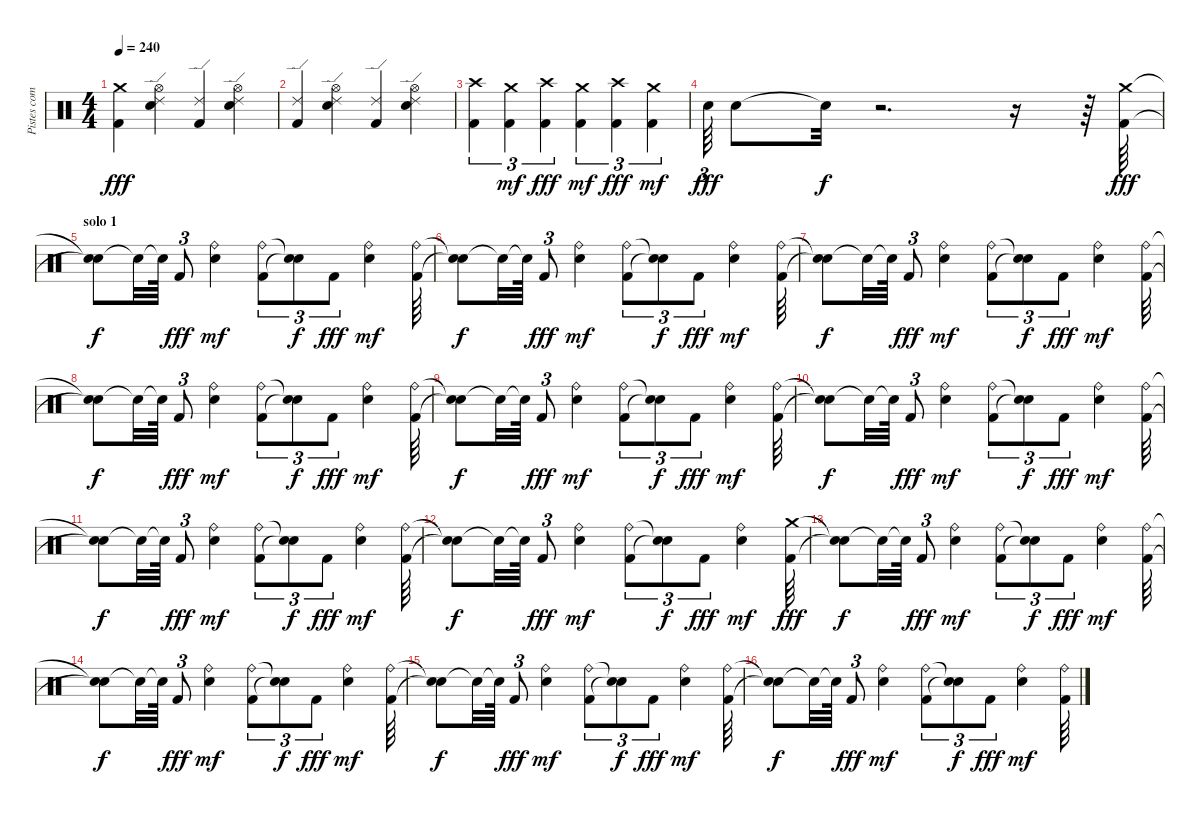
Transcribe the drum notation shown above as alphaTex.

\track ("Pistes combinées" "Pistes com") {instrument percussion}
\staff {score}
\articulation defaults
\ts (4 4)
\tempo 240
\clef neutral
\ks c
("Kick (hit) 2" "Crash medium (hit)").4{dy fff} ("Electric Snare (hit)" "Ride (edge) 2" "Hi-Hat (open)").4 ("Kick (hit) 2" "Ride (edge) 2").4 ("Electric Snare (hit)" "Ride (edge) 2" "Hi-Hat (open)").4 |
("Kick (hit) 2" "Ride (edge) 2").4 ("Electric Snare (hit)" "Ride (edge) 2" "Hi-Hat (open)").4 ("Kick (hit) 2" "Ride (edge) 2").4 ("Electric Snare (hit)" "Ride (edge) 2" "Hi-Hat (open)").4 |
("Kick (hit) 2" "Crash high (hit)").4{tu (3 2)} ("Kick (hit) 2" "Crash medium (hit)").4{tu (3 2) dy mf} ("Kick (hit) 2" "Crash high (hit)").4{tu (3 2) dy fff} ("Kick (hit) 2" "Crash medium (hit)").4{tu (3 2) dy mf} ("Kick (hit) 2" "Crash high (hit)").4{tu (3 2) dy fff} ("Kick (hit) 2" "Crash medium (hit)").4{tu (3 2) dy mf} |
"Electric Snare (hit)".64{tu (3 2) dy fff} "Electric Snare (hit)".8 "Snare (hit)"{t}.32{dy f} r.2{d} r.16 r.64 ("Kick (hit) 2" "Crash medium (hit)").64{dy fff} |
\section ("" "solo 1")
("Snare (hit)"{t} "Snare (hit)"{t}).8{dy f} "Snare (hit)"{t}.32 "Snare (hit)"{t}.64 "Kick (hit) 2".8{tu (3 2) dy fff} ("Electric Snare (hit)" "Ride (bell)").4{dy mf} ("Kick (hit) 2" "Ride (bell)").8{tu (3 2)} ("Snare (hit)"{t} "Snare (hit)"{t}).8{tu (3 2) dy f} "Kick (hit) 2".8{tu (3 2) dy fff} ("Electric Snare (hit)" "Ride (bell)").4{dy mf} ("Kick (hit) 2" "Ride (bell)").64 |
("Snare (hit)"{t} "Snare (hit)"{t}).8{dy f} "Snare (hit)"{t}.32 "Snare (hit)"{t}.64 "Kick (hit) 2".8{tu (3 2) dy fff} ("Electric Snare (hit)" "Ride (bell)").4{dy mf} ("Kick (hit) 2" "Ride (bell)").8{tu (3 2)} ("Snare (hit)"{t} "Snare (hit)"{t}).8{tu (3 2) dy f} "Kick (hit) 2".8{tu (3 2) dy fff} ("Electric Snare (hit)" "Ride (bell)").4{dy mf} ("Kick (hit) 2" "Ride (bell)").64 |
("Snare (hit)"{t} "Snare (hit)"{t}).8{dy f} "Snare (hit)"{t}.32 "Snare (hit)"{t}.64 "Kick (hit) 2".8{tu (3 2) dy fff} ("Electric Snare (hit)" "Ride (bell)").4{dy mf} ("Kick (hit) 2" "Ride (bell)").8{tu (3 2)} ("Snare (hit)"{t} "Snare (hit)"{t}).8{tu (3 2) dy f} "Kick (hit) 2".8{tu (3 2) dy fff} ("Electric Snare (hit)" "Ride (bell)").4{dy mf} ("Kick (hit) 2" "Ride (bell)").64 |
("Snare (hit)"{t} "Snare (hit)"{t}).8{dy f} "Snare (hit)"{t}.32 "Snare (hit)"{t}.64 "Kick (hit) 2".8{tu (3 2) dy fff} ("Electric Snare (hit)" "Ride (bell)").4{dy mf} ("Kick (hit) 2" "Ride (bell)").8{tu (3 2)} ("Snare (hit)"{t} "Snare (hit)"{t}).8{tu (3 2) dy f} "Kick (hit) 2".8{tu (3 2) dy fff} ("Electric Snare (hit)" "Ride (bell)").4{dy mf} ("Kick (hit) 2" "Ride (bell)").64 |
("Snare (hit)"{t} "Snare (hit)"{t}).8{dy f} "Snare (hit)"{t}.32 "Snare (hit)"{t}.64 "Kick (hit) 2".8{tu (3 2) dy fff} ("Electric Snare (hit)" "Ride (bell)").4{dy mf} ("Kick (hit) 2" "Ride (bell)").8{tu (3 2)} ("Snare (hit)"{t} "Snare (hit)"{t}).8{tu (3 2) dy f} "Kick (hit) 2".8{tu (3 2) dy fff} ("Electric Snare (hit)" "Ride (bell)").4{dy mf} ("Kick (hit) 2" "Ride (bell)").64 |
("Snare (hit)"{t} "Snare (hit)"{t}).8{dy f} "Snare (hit)"{t}.32 "Snare (hit)"{t}.64 "Kick (hit) 2".8{tu (3 2) dy fff} ("Electric Snare (hit)" "Ride (bell)").4{dy mf} ("Kick (hit) 2" "Ride (bell)").8{tu (3 2)} ("Snare (hit)"{t} "Snare (hit)"{t}).8{tu (3 2) dy f} "Kick (hit) 2".8{tu (3 2) dy fff} ("Electric Snare (hit)" "Ride (bell)").4{dy mf} ("Kick (hit) 2" "Ride (bell)").64 |
("Snare (hit)"{t} "Snare (hit)"{t}).8{dy f} "Snare (hit)"{t}.32 "Snare (hit)"{t}.64 "Kick (hit) 2".8{tu (3 2) dy fff} ("Electric Snare (hit)" "Ride (bell)").4{dy mf} ("Kick (hit) 2" "Ride (bell)").8{tu (3 2)} ("Snare (hit)"{t} "Snare (hit)"{t}).8{tu (3 2) dy f} "Kick (hit) 2".8{tu (3 2) dy fff} ("Electric Snare (hit)" "Ride (bell)").4{dy mf} ("Kick (hit) 2" "Ride (bell)").64 |
("Snare (hit)"{t} "Snare (hit)"{t}).8{dy f} "Snare (hit)"{t}.32 "Snare (hit)"{t}.64 "Kick (hit) 2".8{tu (3 2) dy fff} ("Electric Snare (hit)" "Ride (bell)").4{dy mf} ("Kick (hit) 2" "Ride (bell)").8{tu (3 2)} ("Snare (hit)"{t} "Snare (hit)"{t}).8{tu (3 2) dy f} "Kick (hit) 2".8{tu (3 2) dy fff} ("Electric Snare (hit)" "Ride (bell)").4{dy mf} ("Kick (hit) 2" "Crash medium (hit)").64{dy fff} |
("Snare (hit)"{t} "Snare (hit)"{t}).8{dy f} "Snare (hit)"{t}.32 "Snare (hit)"{t}.64 "Kick (hit) 2".8{tu (3 2) dy fff} ("Electric Snare (hit)" "Ride (bell)").4{dy mf} ("Kick (hit) 2" "Ride (bell)").8{tu (3 2)} ("Snare (hit)"{t} "Snare (hit)"{t}).8{tu (3 2) dy f} "Kick (hit) 2".8{tu (3 2) dy fff} ("Electric Snare (hit)" "Ride (bell)").4{dy mf} ("Kick (hit) 2" "Ride (bell)").64 |
("Snare (hit)"{t} "Snare (hit)"{t}).8{dy f} "Snare (hit)"{t}.32 "Snare (hit)"{t}.64 "Kick (hit) 2".8{tu (3 2) dy fff} ("Electric Snare (hit)" "Ride (bell)").4{dy mf} ("Kick (hit) 2" "Ride (bell)").8{tu (3 2)} ("Snare (hit)"{t} "Snare (hit)"{t}).8{tu (3 2) dy f} "Kick (hit) 2".8{tu (3 2) dy fff} ("Electric Snare (hit)" "Ride (bell)").4{dy mf} ("Kick (hit) 2" "Ride (bell)").64 |
("Snare (hit)"{t} "Snare (hit)"{t}).8{dy f} "Snare (hit)"{t}.32 "Snare (hit)"{t}.64 "Kick (hit) 2".8{tu (3 2) dy fff} ("Electric Snare (hit)" "Ride (bell)").4{dy mf} ("Kick (hit) 2" "Ride (bell)").8{tu (3 2)} ("Snare (hit)"{t} "Snare (hit)"{t}).8{tu (3 2) dy f} "Kick (hit) 2".8{tu (3 2) dy fff} ("Electric Snare (hit)" "Ride (bell)").4{dy mf} ("Kick (hit) 2" "Ride (bell)").64 |
("Snare (hit)"{t} "Snare (hit)"{t}).8{dy f} "Snare (hit)"{t}.32 "Snare (hit)"{t}.64 "Kick (hit) 2".8{tu (3 2) dy fff} ("Electric Snare (hit)" "Ride (bell)").4{dy mf} ("Kick (hit) 2" "Ride (bell)").8{tu (3 2)} ("Snare (hit)"{t} "Snare (hit)"{t}).8{tu (3 2) dy f} "Kick (hit) 2".8{tu (3 2) dy fff} ("Electric Snare (hit)" "Ride (bell)").4{dy mf} ("Kick (hit) 2" "Ride (bell)").64
